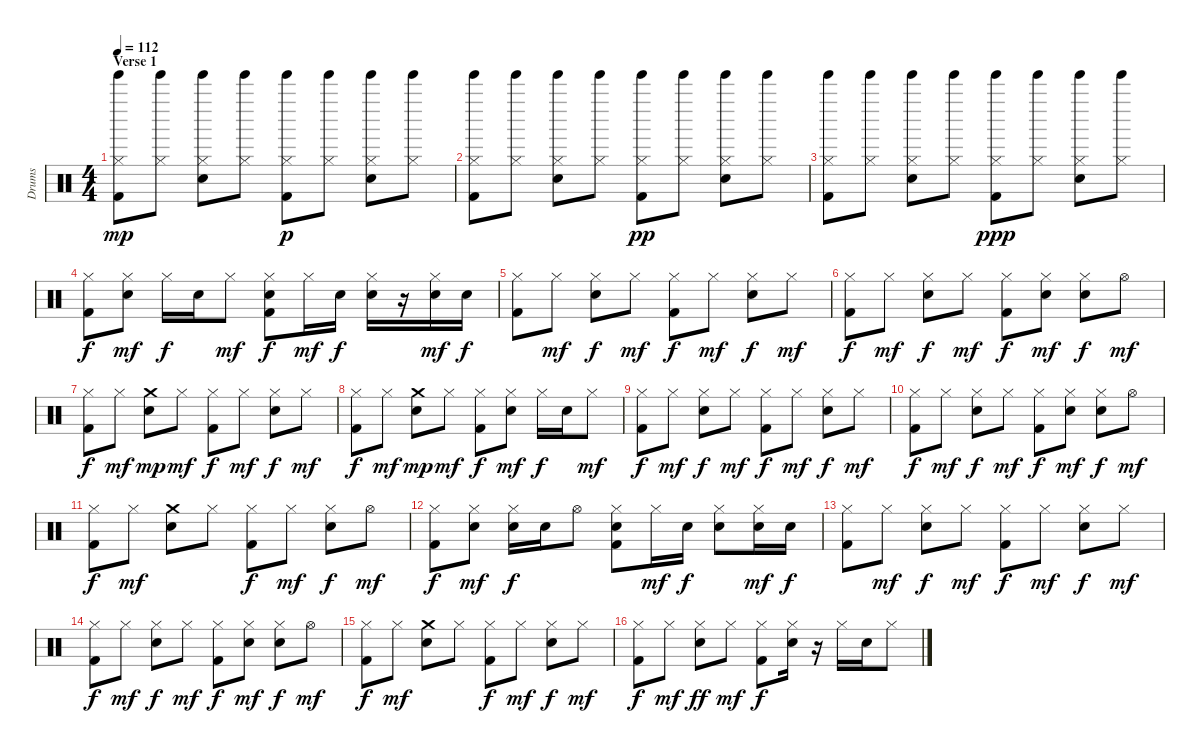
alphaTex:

\track ("Drums" "Drums") {instrument percussion}
\staff {score}
\articulation defaults
\ts (4 4)
\section ("" "Verse 1")
\tempo 112
\clef neutral
\ks c
("Hi-Hat (closed)" "Tinkle Bell (hit)" "Kick (hit) 2").8{dy mp} ("Hi-Hat (closed)" "Tinkle Bell (hit)").8 ("Hi-Hat (closed)" "Tinkle Bell (hit)" "Snare (hit) 2").8 ("Hi-Hat (closed)" "Tinkle Bell (hit)").8 ("Hi-Hat (closed)" "Tinkle Bell (hit)" "Kick (hit) 2").8{dy p} ("Hi-Hat (closed)" "Tinkle Bell (hit)").8 ("Hi-Hat (closed)" "Tinkle Bell (hit)" "Snare (hit) 2").8 ("Hi-Hat (closed)" "Tinkle Bell (hit)").8 |
("Hi-Hat (closed)" "Tinkle Bell (hit)" "Kick (hit) 2").8 ("Hi-Hat (closed)" "Tinkle Bell (hit)").8 ("Hi-Hat (closed)" "Tinkle Bell (hit)" "Snare (hit) 2").8 ("Hi-Hat (closed)" "Tinkle Bell (hit)").8 ("Hi-Hat (closed)" "Tinkle Bell (hit)" "Kick (hit) 2").8{dy pp} ("Hi-Hat (closed)" "Tinkle Bell (hit)").8 ("Hi-Hat (closed)" "Tinkle Bell (hit)" "Snare (hit) 2").8 ("Hi-Hat (closed)" "Tinkle Bell (hit)").8 |
("Hi-Hat (closed)" "Tinkle Bell (hit)" "Kick (hit) 2").8 ("Hi-Hat (closed)" "Tinkle Bell (hit)").8 ("Hi-Hat (closed)" "Tinkle Bell (hit)" "Snare (hit) 2").8 ("Hi-Hat (closed)" "Tinkle Bell (hit)").8 ("Hi-Hat (closed)" "Tinkle Bell (hit)" "Kick (hit) 2").8{dy ppp} ("Hi-Hat (closed)" "Tinkle Bell (hit)").8 ("Hi-Hat (closed)" "Tinkle Bell (hit)" "Snare (hit) 2").8 ("Hi-Hat (closed)" "Tinkle Bell (hit)").8 |
("Hi-Hat (closed)" "Kick (hit) 2").8{dy f} ("Hi-Hat (closed)" "Snare (hit) 2").8{dy mf} "Hi-Hat (closed)".16{dy f} "Snare (hit) 2".16 "Hi-Hat (closed)".8{dy mf} ("Hi-Hat (closed)" "Snare (hit) 2" "Kick (hit) 2").8{dy f} "Hi-Hat (closed)".16{dy mf} "Snare (hit) 2".16{dy f} ("Hi-Hat (closed)" "Snare (hit) 2").16 r.16 ("Hi-Hat (closed)" "Snare (hit) 2").16{dy mf} "Snare (hit) 2".16{dy f} |
("Hi-Hat (closed)" "Kick (hit) 2").8 "Hi-Hat (closed)".8{dy mf} ("Hi-Hat (closed)" "Snare (hit) 2").8{dy f} "Hi-Hat (closed)".8{dy mf} ("Hi-Hat (closed)" "Kick (hit) 2").8{dy f} "Hi-Hat (closed)".8{dy mf} ("Hi-Hat (closed)" "Snare (hit) 2").8{dy f} "Hi-Hat (closed)".8{dy mf} |
("Hi-Hat (closed)" "Kick (hit) 2").8{dy f} "Hi-Hat (closed)".8{dy mf} ("Hi-Hat (closed)" "Snare (hit) 2").8{dy f} "Hi-Hat (closed)".8{dy mf} ("Hi-Hat (closed)" "Kick (hit) 2").8{dy f} ("Hi-Hat (closed)" "Snare (hit) 2").8{dy mf} ("Hi-Hat (closed)" "Snare (hit) 2").8{dy f} "Hi-Hat (open)".8{dy mf} |
("Hi-Hat (closed)" "Kick (hit) 2").8{dy f} "Hi-Hat (closed)".8{dy mf} ("Crash medium (hit)" "Snare (hit) 2").8{dy mp} "Hi-Hat (closed)".8{dy mf} ("Hi-Hat (closed)" "Kick (hit) 2").8{dy f} "Hi-Hat (closed)".8{dy mf} ("Hi-Hat (closed)" "Snare (hit) 2").8{dy f} "Hi-Hat (closed)".8{dy mf} |
("Hi-Hat (closed)" "Kick (hit) 2").8{dy f} "Hi-Hat (closed)".8{dy mf} ("Crash medium (hit)" "Snare (hit) 2").8{dy mp} "Hi-Hat (closed)".8{dy mf} ("Hi-Hat (closed)" "Kick (hit) 2").8{dy f} ("Hi-Hat (closed)" "Snare (hit) 2").8{dy mf} "Hi-Hat (closed)".16{dy f} "Snare (hit) 2".16 "Hi-Hat (closed)".8{dy mf} |
("Hi-Hat (closed)" "Kick (hit) 2").8{dy f} "Hi-Hat (closed)".8{dy mf} ("Hi-Hat (closed)" "Snare (hit) 2").8{dy f} "Hi-Hat (closed)".8{dy mf} ("Hi-Hat (closed)" "Kick (hit) 2").8{dy f} "Hi-Hat (closed)".8{dy mf} ("Hi-Hat (closed)" "Snare (hit) 2").8{dy f} "Hi-Hat (closed)".8{dy mf} |
("Hi-Hat (closed)" "Kick (hit) 2").8{dy f} "Hi-Hat (closed)".8{dy mf} ("Hi-Hat (closed)" "Snare (hit) 2").8{dy f} "Hi-Hat (closed)".8{dy mf} ("Hi-Hat (closed)" "Kick (hit) 2").8{dy f} ("Hi-Hat (closed)" "Snare (hit) 2").8{dy mf} ("Hi-Hat (closed)" "Snare (hit) 2").8{dy f} "Hi-Hat (open)".8{dy mf} |
("Hi-Hat (closed)" "Kick (hit) 2").8{dy f} "Hi-Hat (closed)".8{dy mf} ("Crash medium (hit)" "Snare (hit) 2").8 "Hi-Hat (closed)".8 ("Hi-Hat (closed)" "Kick (hit) 2").8{dy f} "Hi-Hat (closed)".8{dy mf} ("Hi-Hat (closed)" "Snare (hit) 2").8{dy f} "Hi-Hat (open)".8{dy mf} |
("Hi-Hat (closed)" "Kick (hit) 2").8{dy f} ("Hi-Hat (closed)" "Snare (hit) 2").8{dy mf} ("Hi-Hat (closed)" "Snare (hit) 2").16{dy f} "Snare (hit) 2".16 "Hi-Hat (open)".8 ("Hi-Hat (closed)" "Snare (hit) 2" "Kick (hit) 2").8 "Hi-Hat (closed)".16{dy mf} "Snare (hit) 2".16{dy f} ("Hi-Hat (closed)" "Snare (hit) 2").8 ("Hi-Hat (closed)" "Snare (hit) 2").16{dy mf} "Snare (hit) 2".16{dy f} |
("Hi-Hat (closed)" "Kick (hit) 2").8 "Hi-Hat (closed)".8{dy mf} ("Hi-Hat (closed)" "Snare (hit) 2").8{dy f} "Hi-Hat (closed)".8{dy mf} ("Hi-Hat (closed)" "Kick (hit) 2").8{dy f} "Hi-Hat (closed)".8{dy mf} ("Hi-Hat (closed)" "Snare (hit) 2").8{dy f} "Hi-Hat (closed)".8{dy mf} |
("Hi-Hat (closed)" "Kick (hit) 2").8{dy f} "Hi-Hat (closed)".8{dy mf} ("Hi-Hat (closed)" "Snare (hit) 2").8{dy f} "Hi-Hat (closed)".8{dy mf} ("Hi-Hat (closed)" "Kick (hit) 2").8{dy f} ("Hi-Hat (closed)" "Snare (hit) 2").8{dy mf} ("Hi-Hat (closed)" "Snare (hit) 2").8{dy f} "Hi-Hat (open)".8{dy mf} |
("Hi-Hat (closed)" "Kick (hit) 2").8{dy f} "Hi-Hat (closed)".8{dy mf} ("Crash medium (hit)" "Snare (hit) 2").8 "Hi-Hat (closed)".8 ("Hi-Hat (closed)" "Kick (hit) 2").8{dy f} "Hi-Hat (closed)".8{dy mf} ("Hi-Hat (closed)" "Snare (hit) 2").8{dy f} "Hi-Hat (closed)".8{dy mf} |
("Hi-Hat (closed)" "Kick (hit) 2").8{dy f} "Hi-Hat (closed)".8{dy mf} ("Hi-Hat (closed)" "Snare (hit) 2").8{dy ff} "Hi-Hat (closed)".8{dy mf} ("Hi-Hat (closed)" "Kick (hit) 2").8{dy f} ("Hi-Hat (closed)" "Snare (hit) 2").16 r.16 "Hi-Hat (closed)".16 "Snare (hit) 2".16 "Hi-Hat (closed)".8
